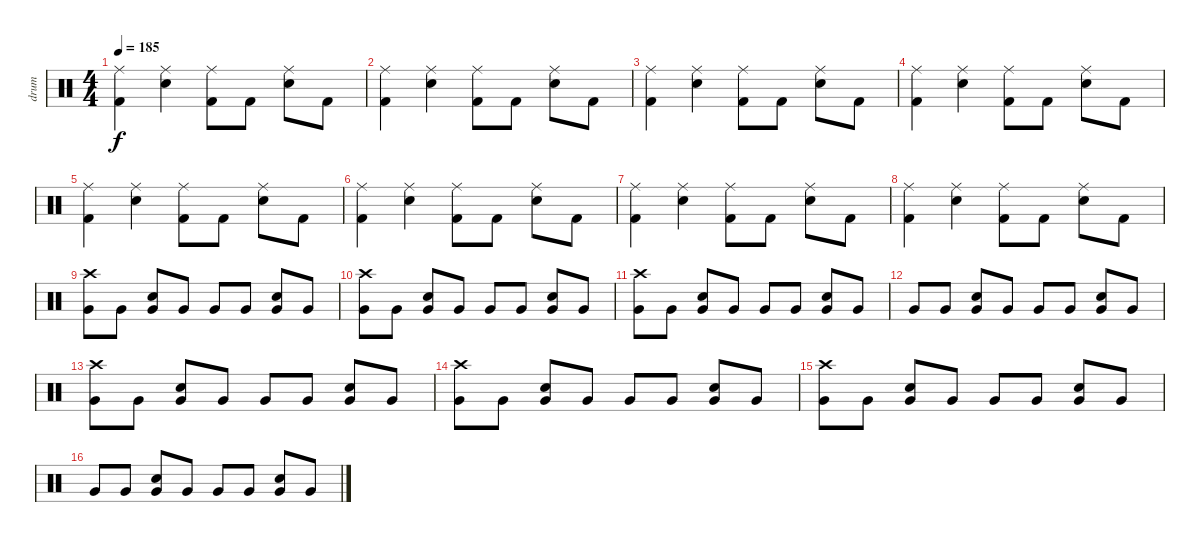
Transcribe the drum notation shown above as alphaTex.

\track ("drum" "drum") {instrument percussion}
\staff {score}
\articulation defaults
\ts (4 4)
\tempo 185
\clef neutral
\ks c
("Ride (middle)" "Kick (hit) 2").4{dy f} ("Ride (middle)" "Snare (hit) 2").4 ("Ride (middle)" "Kick (hit) 2").8 "Kick (hit) 2".8 ("Ride (middle)" "Snare (hit) 2").8 "Kick (hit) 2".8 |
("Ride (middle)" "Kick (hit) 2").4 ("Ride (middle)" "Snare (hit) 2").4 ("Ride (middle)" "Kick (hit) 2").8 "Kick (hit) 2".8 ("Ride (middle)" "Snare (hit) 2").8 "Kick (hit) 2".8 |
("Ride (middle)" "Kick (hit) 2").4 ("Ride (middle)" "Snare (hit) 2").4 ("Ride (middle)" "Kick (hit) 2").8 "Kick (hit) 2".8 ("Ride (middle)" "Snare (hit) 2").8 "Kick (hit) 2".8 |
("Ride (middle)" "Kick (hit) 2").4 ("Ride (middle)" "Snare (hit) 2").4 ("Ride (middle)" "Kick (hit) 2").8 "Kick (hit) 2".8 ("Ride (middle)" "Snare (hit) 2").8 "Kick (hit) 2".8 |
("Ride (middle)" "Kick (hit) 2").4 ("Ride (middle)" "Snare (hit) 2").4 ("Ride (middle)" "Kick (hit) 2").8 "Kick (hit) 2".8 ("Ride (middle)" "Snare (hit) 2").8 "Kick (hit) 2".8 |
("Ride (middle)" "Kick (hit) 2").4 ("Ride (middle)" "Snare (hit) 2").4 ("Ride (middle)" "Kick (hit) 2").8 "Kick (hit) 2".8 ("Ride (middle)" "Snare (hit) 2").8 "Kick (hit) 2".8 |
("Ride (middle)" "Kick (hit) 2").4 ("Ride (middle)" "Snare (hit) 2").4 ("Ride (middle)" "Kick (hit) 2").8 "Kick (hit) 2".8 ("Ride (middle)" "Snare (hit) 2").8 "Kick (hit) 2".8 |
("Ride (middle)" "Kick (hit) 2").4 ("Ride (middle)" "Snare (hit) 2").4 ("Ride (middle)" "Kick (hit) 2").8 "Kick (hit) 2".8 ("Ride (middle)" "Snare (hit) 2").8 "Kick (hit) 2".8 |
("Crash high (hit)" "Very Low Tom (hit)").8 "Very Low Tom (hit)".8 ("Snare (hit) 2" "Very Low Tom (hit)").8 "Very Low Tom (hit)".8 "Very Low Tom (hit)".8 "Very Low Tom (hit)".8 ("Snare (hit) 2" "Very Low Tom (hit)").8 "Very Low Tom (hit)".8 |
("Crash high (hit)" "Very Low Tom (hit)").8 "Very Low Tom (hit)".8 ("Snare (hit) 2" "Very Low Tom (hit)").8 "Very Low Tom (hit)".8 "Very Low Tom (hit)".8 "Very Low Tom (hit)".8 ("Snare (hit) 2" "Very Low Tom (hit)").8 "Very Low Tom (hit)".8 |
("Crash high (hit)" "Very Low Tom (hit)").8 "Very Low Tom (hit)".8 ("Snare (hit) 2" "Very Low Tom (hit)").8 "Very Low Tom (hit)".8 "Very Low Tom (hit)".8 "Very Low Tom (hit)".8 ("Snare (hit) 2" "Very Low Tom (hit)").8 "Very Low Tom (hit)".8 |
"Very Low Tom (hit)".8 "Very Low Tom (hit)".8 ("Snare (hit) 2" "Very Low Tom (hit)").8 "Very Low Tom (hit)".8 "Very Low Tom (hit)".8 "Very Low Tom (hit)".8 ("Snare (hit) 2" "Very Low Tom (hit)").8 "Very Low Tom (hit)".8 |
("Crash high (hit)" "Very Low Tom (hit)").8 "Very Low Tom (hit)".8 ("Snare (hit) 2" "Very Low Tom (hit)").8 "Very Low Tom (hit)".8 "Very Low Tom (hit)".8 "Very Low Tom (hit)".8 ("Snare (hit) 2" "Very Low Tom (hit)").8 "Very Low Tom (hit)".8 |
("Crash high (hit)" "Very Low Tom (hit)").8 "Very Low Tom (hit)".8 ("Snare (hit) 2" "Very Low Tom (hit)").8 "Very Low Tom (hit)".8 "Very Low Tom (hit)".8 "Very Low Tom (hit)".8 ("Snare (hit) 2" "Very Low Tom (hit)").8 "Very Low Tom (hit)".8 |
("Crash high (hit)" "Very Low Tom (hit)").8 "Very Low Tom (hit)".8 ("Snare (hit) 2" "Very Low Tom (hit)").8 "Very Low Tom (hit)".8 "Very Low Tom (hit)".8 "Very Low Tom (hit)".8 ("Snare (hit) 2" "Very Low Tom (hit)").8 "Very Low Tom (hit)".8 |
"Very Low Tom (hit)".8 "Very Low Tom (hit)".8 ("Snare (hit) 2" "Very Low Tom (hit)").8 "Very Low Tom (hit)".8 "Very Low Tom (hit)".8 "Very Low Tom (hit)".8 ("Snare (hit) 2" "Very Low Tom (hit)").8 "Very Low Tom (hit)".8
